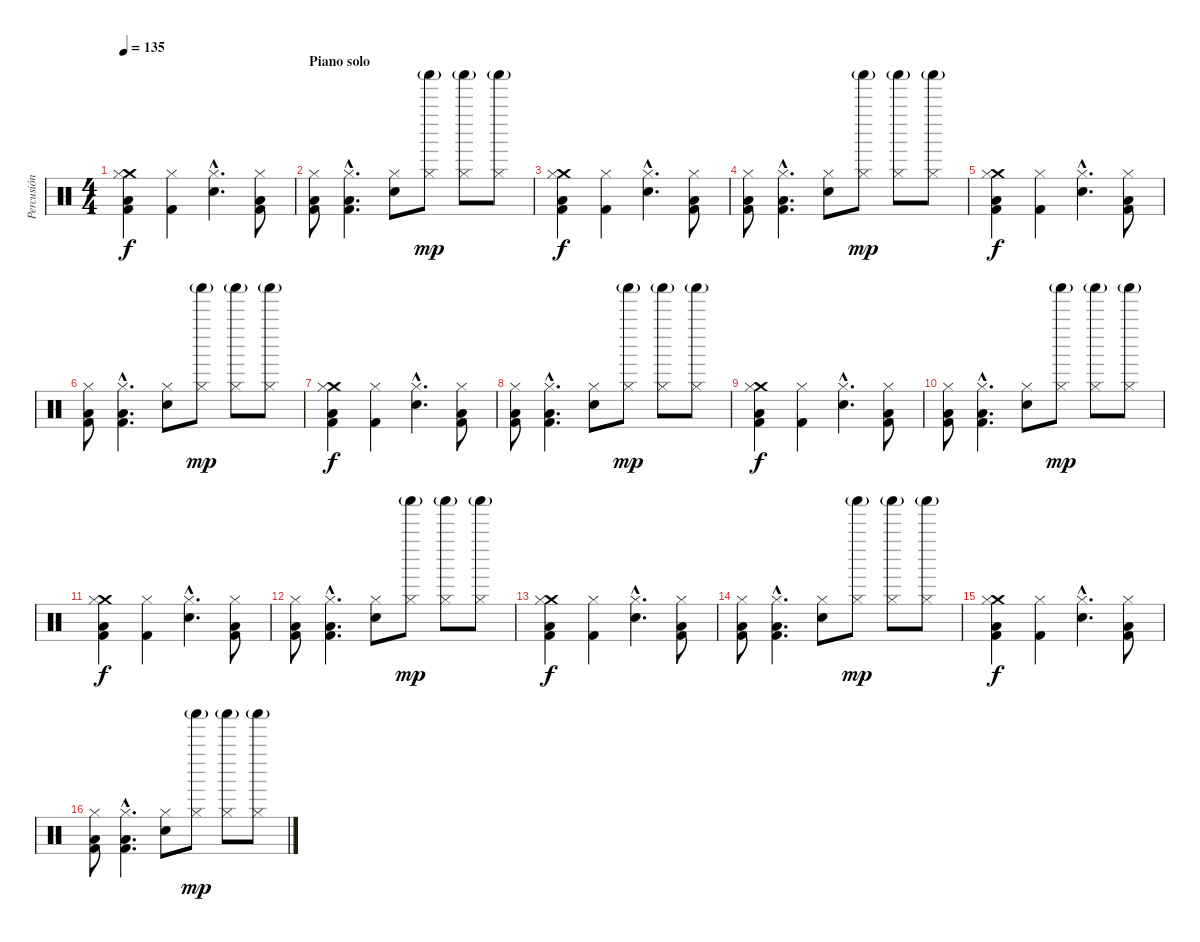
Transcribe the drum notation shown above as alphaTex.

\track ("Percusión" "Percusión") {instrument percussion}
\staff {score}
\articulation defaults
\ts (4 4)
\tempo 135
\clef neutral
\ks c
("Crash medium (hit)" "Kick (hit) 2" "Low Floor Tom (hit)" "Hi-Hat (closed)").4{dy f} ("Kick (hit) 2" "Hi-Hat (closed)").4 ("Hi-Hat (closed)"{hac} "Snare (hit) 2"{hac}).4{d} ("Hi-Hat (closed)" "Kick (hit) 2" "Low Floor Tom (hit)").8 |
\section ("" "Piano solo")
("Hi-Hat (closed)" "Kick (hit) 2" "Low Floor Tom (hit)").8 ("Hi-Hat (closed)"{hac} "Kick (hit) 2"{hac} "Low Floor Tom (hit)"{hac}).4{d} ("Hi-Hat (closed)" "Snare (hit) 2").8 ("Hi-Hat (closed)" "Shaker (hit)"{g}).8{dy mp} ("Hi-Hat (closed)" "Shaker (hit)"{g}).8 ("Hi-Hat (closed)" "Shaker (hit)"{g}).8 |
("Crash medium (hit)" "Kick (hit) 2" "Low Floor Tom (hit)" "Hi-Hat (closed)").4{dy f} ("Kick (hit) 2" "Hi-Hat (closed)").4 ("Hi-Hat (closed)"{hac} "Snare (hit) 2"{hac}).4{d} ("Hi-Hat (closed)" "Kick (hit) 2" "Low Floor Tom (hit)").8 |
("Hi-Hat (closed)" "Kick (hit) 2" "Low Floor Tom (hit)").8 ("Hi-Hat (closed)"{hac} "Kick (hit) 2"{hac} "Low Floor Tom (hit)"{hac}).4{d} ("Hi-Hat (closed)" "Snare (hit) 2").8 ("Hi-Hat (closed)" "Shaker (hit)"{g}).8{dy mp} ("Hi-Hat (closed)" "Shaker (hit)"{g}).8 ("Hi-Hat (closed)" "Shaker (hit)"{g}).8 |
("Crash medium (hit)" "Kick (hit) 2" "Low Floor Tom (hit)" "Hi-Hat (closed)").4{dy f} ("Kick (hit) 2" "Hi-Hat (closed)").4 ("Hi-Hat (closed)"{hac} "Snare (hit) 2"{hac}).4{d} ("Hi-Hat (closed)" "Kick (hit) 2" "Low Floor Tom (hit)").8 |
("Hi-Hat (closed)" "Kick (hit) 2" "Low Floor Tom (hit)").8 ("Hi-Hat (closed)"{hac} "Kick (hit) 2"{hac} "Low Floor Tom (hit)"{hac}).4{d} ("Hi-Hat (closed)" "Snare (hit) 2").8 ("Hi-Hat (closed)" "Shaker (hit)"{g}).8{dy mp} ("Hi-Hat (closed)" "Shaker (hit)"{g}).8 ("Hi-Hat (closed)" "Shaker (hit)"{g}).8 |
("Crash medium (hit)" "Kick (hit) 2" "Low Floor Tom (hit)" "Hi-Hat (closed)").4{dy f} ("Kick (hit) 2" "Hi-Hat (closed)").4 ("Hi-Hat (closed)"{hac} "Snare (hit) 2"{hac}).4{d} ("Hi-Hat (closed)" "Kick (hit) 2" "Low Floor Tom (hit)").8 |
("Hi-Hat (closed)" "Kick (hit) 2" "Low Floor Tom (hit)").8 ("Hi-Hat (closed)"{hac} "Kick (hit) 2"{hac} "Low Floor Tom (hit)"{hac}).4{d} ("Hi-Hat (closed)" "Snare (hit) 2").8 ("Hi-Hat (closed)" "Shaker (hit)"{g}).8{dy mp} ("Hi-Hat (closed)" "Shaker (hit)"{g}).8 ("Hi-Hat (closed)" "Shaker (hit)"{g}).8 |
("Crash medium (hit)" "Kick (hit) 2" "Low Floor Tom (hit)" "Hi-Hat (closed)").4{dy f} ("Kick (hit) 2" "Hi-Hat (closed)").4 ("Hi-Hat (closed)"{hac} "Snare (hit) 2"{hac}).4{d} ("Hi-Hat (closed)" "Kick (hit) 2" "Low Floor Tom (hit)").8 |
("Hi-Hat (closed)" "Kick (hit) 2" "Low Floor Tom (hit)").8 ("Hi-Hat (closed)"{hac} "Kick (hit) 2"{hac} "Low Floor Tom (hit)"{hac}).4{d} ("Hi-Hat (closed)" "Snare (hit) 2").8 ("Hi-Hat (closed)" "Shaker (hit)"{g}).8{dy mp} ("Hi-Hat (closed)" "Shaker (hit)"{g}).8 ("Hi-Hat (closed)" "Shaker (hit)"{g}).8 |
("Crash medium (hit)" "Kick (hit) 2" "Low Floor Tom (hit)" "Hi-Hat (closed)").4{dy f} ("Kick (hit) 2" "Hi-Hat (closed)").4 ("Hi-Hat (closed)"{hac} "Snare (hit) 2"{hac}).4{d} ("Hi-Hat (closed)" "Kick (hit) 2" "Low Floor Tom (hit)").8 |
("Hi-Hat (closed)" "Kick (hit) 2" "Low Floor Tom (hit)").8 ("Hi-Hat (closed)"{hac} "Kick (hit) 2"{hac} "Low Floor Tom (hit)"{hac}).4{d} ("Hi-Hat (closed)" "Snare (hit) 2").8 ("Hi-Hat (closed)" "Shaker (hit)"{g}).8{dy mp} ("Hi-Hat (closed)" "Shaker (hit)"{g}).8 ("Hi-Hat (closed)" "Shaker (hit)"{g}).8 |
("Crash medium (hit)" "Kick (hit) 2" "Low Floor Tom (hit)" "Hi-Hat (closed)").4{dy f} ("Kick (hit) 2" "Hi-Hat (closed)").4 ("Hi-Hat (closed)"{hac} "Snare (hit) 2"{hac}).4{d} ("Hi-Hat (closed)" "Kick (hit) 2" "Low Floor Tom (hit)").8 |
("Hi-Hat (closed)" "Kick (hit) 2" "Low Floor Tom (hit)").8 ("Hi-Hat (closed)"{hac} "Kick (hit) 2"{hac} "Low Floor Tom (hit)"{hac}).4{d} ("Hi-Hat (closed)" "Snare (hit) 2").8 ("Hi-Hat (closed)" "Shaker (hit)"{g}).8{dy mp} ("Hi-Hat (closed)" "Shaker (hit)"{g}).8 ("Hi-Hat (closed)" "Shaker (hit)"{g}).8 |
("Crash medium (hit)" "Kick (hit) 2" "Low Floor Tom (hit)" "Hi-Hat (closed)").4{dy f} ("Kick (hit) 2" "Hi-Hat (closed)").4 ("Hi-Hat (closed)"{hac} "Snare (hit) 2"{hac}).4{d} ("Hi-Hat (closed)" "Kick (hit) 2" "Low Floor Tom (hit)").8 |
("Hi-Hat (closed)" "Kick (hit) 2" "Low Floor Tom (hit)").8 ("Hi-Hat (closed)"{hac} "Kick (hit) 2"{hac} "Low Floor Tom (hit)"{hac}).4{d} ("Hi-Hat (closed)" "Snare (hit) 2").8 ("Hi-Hat (closed)" "Shaker (hit)"{g}).8{dy mp} ("Hi-Hat (closed)" "Shaker (hit)"{g}).8 ("Hi-Hat (closed)" "Shaker (hit)"{g}).8
